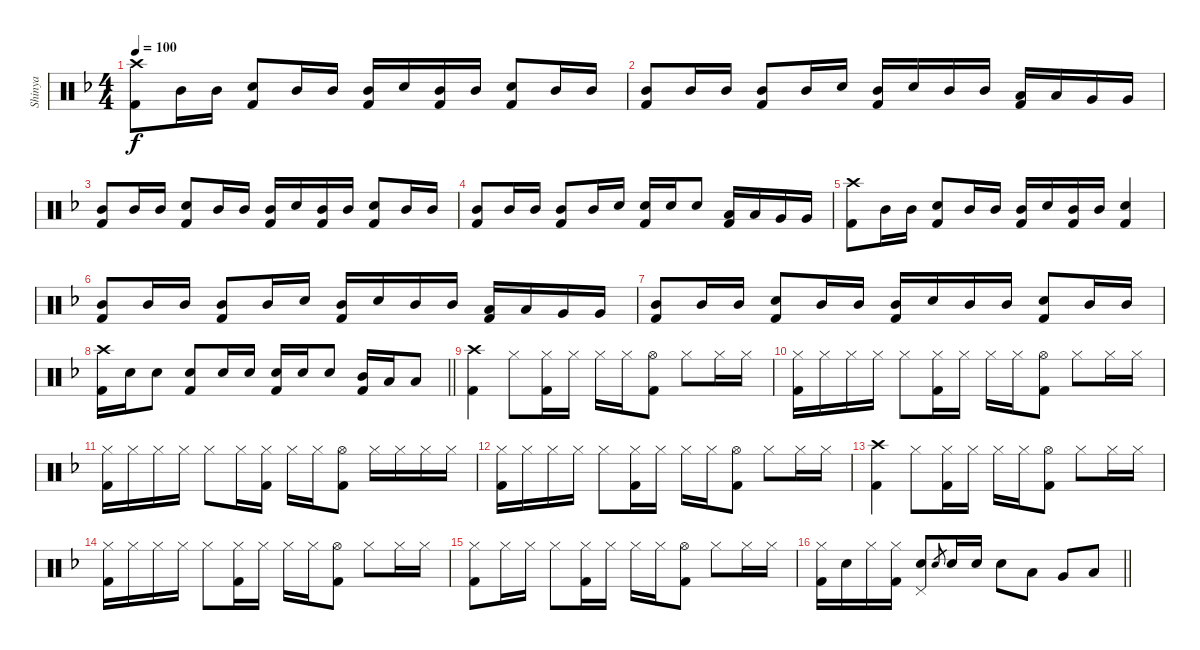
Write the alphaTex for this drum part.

\track ("Shinya" "Shinya") {instrument percussion}
\staff {score}
\articulation defaults
\ts (4 4)
\tempo 100
\clef neutral
\ks f
("Crash high (hit)" "Kick (hit) 2").8{dy f} "Mid Tom (hit)".16 "Mid Tom (hit)".16 ("Electric Snare (hit)" "Kick (hit) 2").8 "Mid Tom (hit)".16 "Mid Tom (hit)".16 ("Mid Tom (hit)" "Kick (hit) 2").16 "Electric Snare (hit)".16 ("Mid Tom (hit)" "Kick (hit) 2").16 "Mid Tom (hit)".16 ("Electric Snare (hit)" "Kick (hit) 2").8 "Mid Tom (hit)".16 "Mid Tom (hit)".16 |
("Mid Tom (hit)" "Kick (hit) 2").8 "Mid Tom (hit)".16 "Mid Tom (hit)".16 ("Mid Tom (hit)" "Kick (hit) 2").8 "Mid Tom (hit)".16 "Electric Snare (hit)".16 ("Mid Tom (hit)" "Kick (hit) 2").16 "Electric Snare (hit)".16 "Mid Tom (hit)".16 "Mid Tom (hit)".16 ("Low Tom (hit)" "Kick (hit) 2").16 "Low Tom (hit)".16 "Very Low Tom (hit)".16 "Very Low Tom (hit)".16 |
("Mid Tom (hit)" "Kick (hit) 2").8 "Mid Tom (hit)".16 "Mid Tom (hit)".16 ("Electric Snare (hit)" "Kick (hit) 2").8 "Mid Tom (hit)".16 "Mid Tom (hit)".16 ("Mid Tom (hit)" "Kick (hit) 2").16 "Electric Snare (hit)".16 ("Mid Tom (hit)" "Kick (hit) 2").16 "Mid Tom (hit)".16 ("Electric Snare (hit)" "Kick (hit) 2").8 "Mid Tom (hit)".16 "Mid Tom (hit)".16 |
("Mid Tom (hit)" "Kick (hit) 2").8 "Mid Tom (hit)".16 "Mid Tom (hit)".16 ("Mid Tom (hit)" "Kick (hit) 2").8 "Mid Tom (hit)".16 "Electric Snare (hit)".16 ("Electric Snare (hit)" "Kick (hit) 2").16 "Electric Snare (hit)".16 "Electric Snare (hit)".8 ("Low Tom (hit)" "Kick (hit) 2").16 "Low Tom (hit)".16 "Very Low Tom (hit)".16 "Very Low Tom (hit)".16 |
("Crash high (hit)" "Kick (hit) 2").8 "Mid Tom (hit)".16 "Mid Tom (hit)".16 ("Electric Snare (hit)" "Kick (hit) 2").8 "Mid Tom (hit)".16 "Mid Tom (hit)".16 ("Mid Tom (hit)" "Kick (hit) 2").16 "Electric Snare (hit)".16 ("Mid Tom (hit)" "Kick (hit) 2").16 "Mid Tom (hit)".16 ("Electric Snare (hit)" "Kick (hit) 2").4 |
("Mid Tom (hit)" "Kick (hit) 2").8 "Mid Tom (hit)".16 "Mid Tom (hit)".16 ("Mid Tom (hit)" "Kick (hit) 2").8 "Mid Tom (hit)".16 "Electric Snare (hit)".16 ("Mid Tom (hit)" "Kick (hit) 2").16 "Electric Snare (hit)".16 "Mid Tom (hit)".16 "Mid Tom (hit)".16 ("Low Tom (hit)" "Kick (hit) 2").16 "Low Tom (hit)".16 "Very Low Tom (hit)".16 "Very Low Tom (hit)".16 |
("Mid Tom (hit)" "Kick (hit) 2").8 "Mid Tom (hit)".16 "Mid Tom (hit)".16 ("Electric Snare (hit)" "Kick (hit) 2").8 "Mid Tom (hit)".16 "Mid Tom (hit)".16 ("Mid Tom (hit)" "Kick (hit) 2").16 "Electric Snare (hit)".16 "Mid Tom (hit)".16 "Mid Tom (hit)".16 ("Electric Snare (hit)" "Kick (hit) 2").8 "Mid Tom (hit)".16 "Mid Tom (hit)".16 |
\barLineRight lightlight
("Crash high (hit)" "Kick (hit) 2").16 "Electric Snare (hit)".16 "Electric Snare (hit)".8 ("Electric Snare (hit)" "Kick (hit) 2").8 "Electric Snare (hit)".16 "Electric Snare (hit)".16 ("Electric Snare (hit)" "Kick (hit) 2").16 "Electric Snare (hit)".16 "Electric Snare (hit)".8 ("Mid Tom (hit)" "Kick (hit) 2").16 "Low Tom (hit)".16 "Low Floor Tom (hit)".8 |
("Crash high (hit)" "Kick (hit) 2").4 "Hi-Hat (closed)".8 ("Hi-Hat (closed)" "Kick (hit) 2").16 "Hi-Hat (closed)".16 "Hi-Hat (closed)".16 "Hi-Hat (closed)".16 ("Hi-Hat (open)" "Kick (hit) 2").8 "Hi-Hat (closed)".8 "Hi-Hat (closed)".16 "Hi-Hat (closed)".16 |
("Hi-Hat (closed)" "Kick (hit) 2").16 "Hi-Hat (closed)".16 "Hi-Hat (closed)".16 "Hi-Hat (closed)".16 "Hi-Hat (closed)".8 ("Hi-Hat (closed)" "Kick (hit) 2").16 "Hi-Hat (closed)".16 "Hi-Hat (closed)".16 "Hi-Hat (closed)".16 ("Hi-Hat (open)" "Kick (hit) 2").8 "Hi-Hat (closed)".8 "Hi-Hat (closed)".16 "Hi-Hat (closed)".16 |
("Hi-Hat (closed)" "Kick (hit) 2").16 "Hi-Hat (closed)".16 "Hi-Hat (closed)".16 "Hi-Hat (closed)".16 "Hi-Hat (closed)".8 "Hi-Hat (closed)".16 ("Hi-Hat (closed)" "Kick (hit) 2").16 "Hi-Hat (closed)".16 "Hi-Hat (closed)".16 ("Hi-Hat (open)" "Kick (hit) 2").8 "Hi-Hat (closed)".16 "Hi-Hat (closed)".16 "Hi-Hat (closed)".16 "Hi-Hat (closed)".16 |
("Hi-Hat (closed)" "Kick (hit) 2").16 "Hi-Hat (closed)".16 "Hi-Hat (closed)".16 "Hi-Hat (closed)".16 "Hi-Hat (closed)".8 ("Hi-Hat (closed)" "Kick (hit) 2").16 "Hi-Hat (closed)".16 "Hi-Hat (closed)".16 "Hi-Hat (closed)".16 ("Hi-Hat (open)" "Kick (hit) 2").8 "Hi-Hat (closed)".8 "Hi-Hat (closed)".16 "Hi-Hat (closed)".16 |
("Crash high (hit)" "Kick (hit) 2").4 "Hi-Hat (closed)".8 ("Hi-Hat (closed)" "Kick (hit) 2").16 "Hi-Hat (closed)".16 "Hi-Hat (closed)".16 "Hi-Hat (closed)".16 ("Hi-Hat (open)" "Kick (hit) 2").8 "Hi-Hat (closed)".8 "Hi-Hat (closed)".16 "Hi-Hat (closed)".16 |
("Hi-Hat (closed)" "Kick (hit) 2").16 "Hi-Hat (closed)".16 "Hi-Hat (closed)".16 "Hi-Hat (closed)".16 "Hi-Hat (closed)".8 ("Hi-Hat (closed)" "Kick (hit) 2").16 "Hi-Hat (closed)".16 "Hi-Hat (closed)".16 "Hi-Hat (closed)".16 ("Hi-Hat (open)" "Kick (hit) 2").8 "Hi-Hat (closed)".8 "Hi-Hat (closed)".16 "Hi-Hat (closed)".16 |
("Hi-Hat (closed)" "Kick (hit) 2").8 "Hi-Hat (closed)".16 "Hi-Hat (closed)".16 "Hi-Hat (closed)".8 ("Hi-Hat (closed)" "Kick (hit) 2").16 "Hi-Hat (closed)".16 "Hi-Hat (closed)".16 "Hi-Hat (closed)".16 ("Hi-Hat (open)" "Kick (hit) 2").8 "Hi-Hat (closed)".8 "Hi-Hat (closed)".16 "Hi-Hat (closed)".16 |
\barLineRight lightlight
("Hi-Hat (closed)" "Kick (hit) 2").16 "Electric Snare (hit)".16 "Hi-Hat (closed)".16 ("Hi-Hat (closed)" "Kick (hit) 2").16 ("Pedal Hi-Hat (hit)" "Electric Snare (hit)").8 "Electric Snare (hit)".8{gr} "Electric Snare (hit)".16 "Electric Snare (hit)".16 "Electric Snare (hit)".8 "Low Tom (hit)".8 "Very Low Tom (hit)".8 "Low Floor Tom (hit)".8
